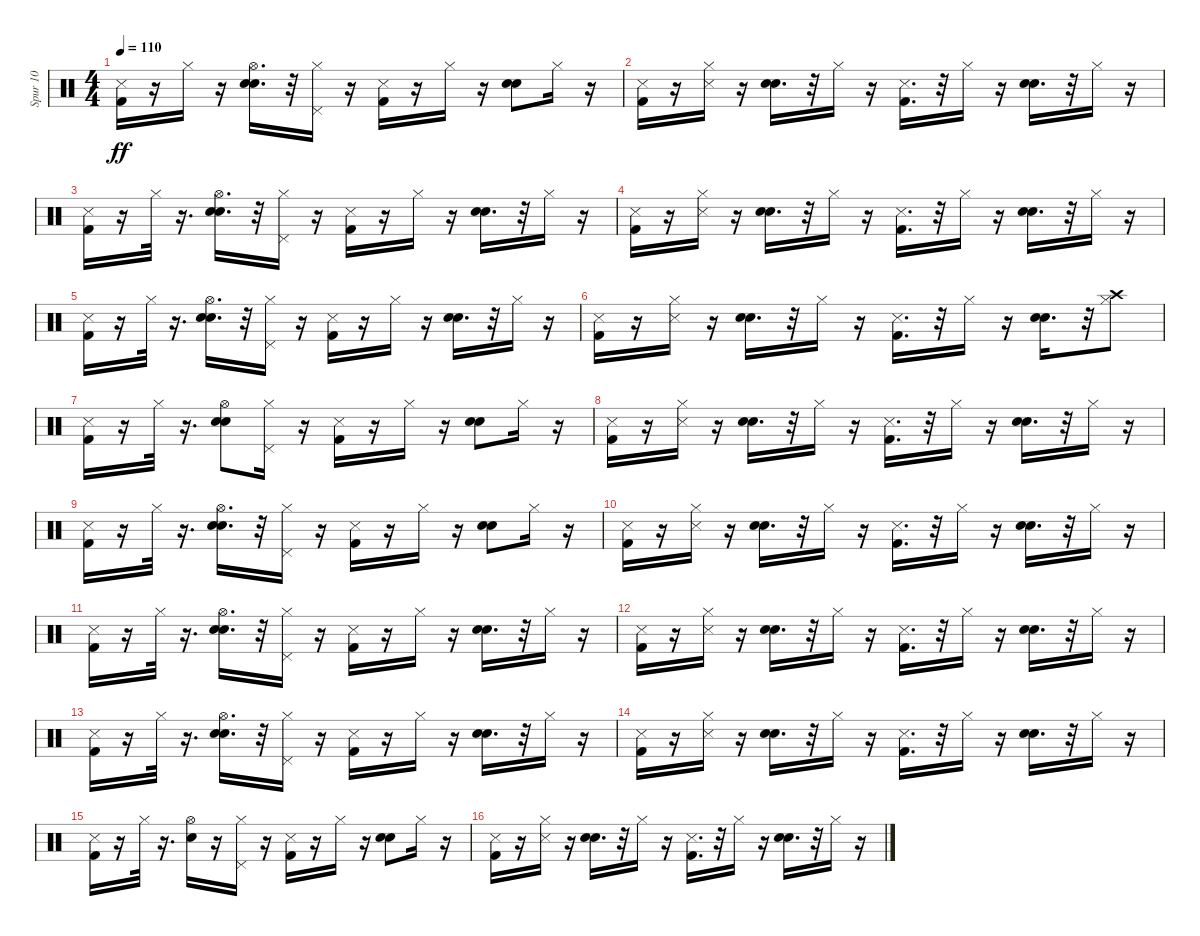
\track ("Spur 10" "Spur 10") {instrument percussion}
\staff {score}
\articulation defaults
\ts (4 4)
\tempo 110
\clef neutral
\ks c
("Kick (hit) 2" "Snare (side stick) 3").16{dy ff} r.16 "Hi-Hat (closed)".16 r.16 ("Hand Clap (hit)" "Electric Snare (hit)" "Hi-Hat (open)").16{d} r.32 ("Hi-Hat (closed)" "Pedal Hi-Hat (hit)").16 r.16 ("Kick (hit) 2" "Snare (side stick) 3").16 r.16 "Hi-Hat (closed)".16 r.16 ("Hand Clap (hit)" "Electric Snare (hit)").8 "Hi-Hat (closed)".16 r.16 |
("Kick (hit) 2" "Snare (side stick) 3").16 r.16 ("Snare (side stick) 3" "Hi-Hat (closed)").16 r.16 ("Hand Clap (hit)" "Electric Snare (hit)").16{d} r.32 "Hi-Hat (closed)".16 r.16 ("Kick (hit) 2" "Snare (side stick) 3").16{d} r.32 "Hi-Hat (closed)".16 r.16 ("Electric Snare (hit)" "Hand Clap (hit)").16{d} r.32 "Hi-Hat (closed)".16 r.16 |
("Kick (hit) 2" "Snare (side stick) 3").16 r.16 "Hi-Hat (closed)".32 r.16{d} ("Hand Clap (hit)" "Electric Snare (hit)" "Hi-Hat (open)").16{d} r.32 ("Hi-Hat (closed)" "Pedal Hi-Hat (hit)").16 r.16 ("Kick (hit) 2" "Snare (side stick) 3").16 r.16 "Hi-Hat (closed)".16 r.16 ("Hand Clap (hit)" "Electric Snare (hit)").16{d} r.32 "Hi-Hat (closed)".16 r.16 |
("Kick (hit) 2" "Snare (side stick) 3").16 r.16 ("Snare (side stick) 3" "Hi-Hat (closed)").16 r.16 ("Hand Clap (hit)" "Electric Snare (hit)").16{d} r.32 "Hi-Hat (closed)".16 r.16 ("Kick (hit) 2" "Snare (side stick) 3").16{d} r.32 "Hi-Hat (closed)".16 r.16 ("Hand Clap (hit)" "Electric Snare (hit)").16{d} r.32 "Hi-Hat (closed)".16 r.16 |
("Kick (hit) 2" "Snare (side stick) 3").16 r.16 "Hi-Hat (closed)".32 r.16{d} ("Hand Clap (hit)" "Electric Snare (hit)" "Hi-Hat (open)").16{d} r.32 ("Hi-Hat (closed)" "Pedal Hi-Hat (hit)").16 r.16 ("Kick (hit) 2" "Snare (side stick) 3").16 r.16 "Hi-Hat (closed)".16 r.16 ("Hand Clap (hit)" "Electric Snare (hit)").16{d} r.32 "Hi-Hat (closed)".16 r.16 |
("Kick (hit) 2" "Snare (side stick) 3").16 r.16 ("Snare (side stick) 3" "Hi-Hat (closed)").16 r.16 ("Hand Clap (hit)" "Electric Snare (hit)").16{d} r.32 "Hi-Hat (closed)".16 r.16 ("Kick (hit) 2" "Snare (side stick) 3").16{d} r.32 "Hi-Hat (closed)".16 r.16 ("Hand Clap (hit)" "Electric Snare (hit)").16{d} r.32 ("Hi-Hat (closed)" "Crash high (hit)").8 |
("Kick (hit) 2" "Snare (side stick) 3").16 r.16 "Hi-Hat (closed)".32 r.16{d} ("Hand Clap (hit)" "Electric Snare (hit)" "Hi-Hat (open)").8 ("Hi-Hat (closed)" "Pedal Hi-Hat (hit)").16 r.16 ("Kick (hit) 2" "Snare (side stick) 3").16 r.16 "Hi-Hat (closed)".16 r.16 ("Electric Snare (hit)" "Hand Clap (hit)").8 "Hi-Hat (closed)".16 r.16 |
("Kick (hit) 2" "Snare (side stick) 3").16 r.16 ("Snare (side stick) 3" "Hi-Hat (closed)").16 r.16 ("Electric Snare (hit)" "Hand Clap (hit)").16{d} r.32 "Hi-Hat (closed)".16 r.16 ("Kick (hit) 2" "Snare (side stick) 3").16{d} r.32 "Hi-Hat (closed)".16 r.16 ("Hand Clap (hit)" "Electric Snare (hit)").16{d} r.32 "Hi-Hat (closed)".16 r.16 |
("Kick (hit) 2" "Snare (side stick) 3").16 r.16 "Hi-Hat (closed)".32 r.16{d} ("Hand Clap (hit)" "Electric Snare (hit)" "Hi-Hat (open)").16{d} r.32 ("Hi-Hat (closed)" "Pedal Hi-Hat (hit)").16 r.16 ("Kick (hit) 2" "Snare (side stick) 3").16 r.16 "Hi-Hat (closed)".16 r.16 ("Hand Clap (hit)" "Electric Snare (hit)").8 "Hi-Hat (closed)".16 r.16 |
("Kick (hit) 2" "Snare (side stick) 3").16 r.16 ("Snare (side stick) 3" "Hi-Hat (closed)").16 r.16 ("Hand Clap (hit)" "Electric Snare (hit)").16{d} r.32 "Hi-Hat (closed)".16 r.16 ("Kick (hit) 2" "Snare (side stick) 3").16{d} r.32 "Hi-Hat (closed)".16 r.16 ("Electric Snare (hit)" "Hand Clap (hit)").16{d} r.32 "Hi-Hat (closed)".16 r.16 |
("Kick (hit) 2" "Snare (side stick) 3").16 r.16 "Hi-Hat (closed)".32 r.16{d} ("Hand Clap (hit)" "Electric Snare (hit)" "Hi-Hat (open)").16{d} r.32 ("Hi-Hat (closed)" "Pedal Hi-Hat (hit)").16 r.16 ("Kick (hit) 2" "Snare (side stick) 3").16 r.16 "Hi-Hat (closed)".16 r.16 ("Hand Clap (hit)" "Electric Snare (hit)").16{d} r.32 "Hi-Hat (closed)".16 r.16 |
("Kick (hit) 2" "Snare (side stick) 3").16 r.16 ("Snare (side stick) 3" "Hi-Hat (closed)").16 r.16 ("Hand Clap (hit)" "Electric Snare (hit)").16{d} r.32 "Hi-Hat (closed)".16 r.16 ("Kick (hit) 2" "Snare (side stick) 3").16{d} r.32 "Hi-Hat (closed)".16 r.16 ("Hand Clap (hit)" "Electric Snare (hit)").16{d} r.32 "Hi-Hat (closed)".16 r.16 |
("Kick (hit) 2" "Snare (side stick) 3").16 r.16 "Hi-Hat (closed)".32 r.16{d} ("Hand Clap (hit)" "Electric Snare (hit)" "Hi-Hat (open)").16{d} r.32 ("Hi-Hat (closed)" "Pedal Hi-Hat (hit)").16 r.16 ("Kick (hit) 2" "Snare (side stick) 3").16 r.16 "Hi-Hat (closed)".16 r.16 ("Hand Clap (hit)" "Electric Snare (hit)").16{d} r.32 "Hi-Hat (closed)".16 r.16 |
("Kick (hit) 2" "Snare (side stick) 3").16 r.16 ("Snare (side stick) 3" "Hi-Hat (closed)").16 r.16 ("Hand Clap (hit)" "Electric Snare (hit)").16{d} r.32 "Hi-Hat (closed)".16 r.16 ("Kick (hit) 2" "Snare (side stick) 3").16{d} r.32 "Hi-Hat (closed)".16 r.16 ("Hand Clap (hit)" "Electric Snare (hit)").16{d} r.32 "Hi-Hat (closed)".16 r.16 |
("Kick (hit) 2" "Snare (side stick) 3").16 r.16 "Hi-Hat (closed)".32 r.16{d} ("Electric Snare (hit)" "Hi-Hat (open)").16 r.16 ("Hi-Hat (closed)" "Pedal Hi-Hat (hit)").16 r.16 ("Kick (hit) 2" "Snare (side stick) 3").16 r.16 "Hi-Hat (closed)".16 r.16 ("Electric Snare (hit)" "Hand Clap (hit)").8 "Hi-Hat (closed)".16 r.16 |
("Kick (hit) 2" "Snare (side stick) 3").16 r.16 ("Snare (side stick) 3" "Hi-Hat (closed)").16 r.16 ("Hand Clap (hit)" "Electric Snare (hit)").16{d} r.32 "Hi-Hat (closed)".16 r.16 ("Kick (hit) 2" "Snare (side stick) 3").16{d} r.32 "Hi-Hat (closed)".16 r.16 ("Hand Clap (hit)" "Electric Snare (hit)").16{d} r.32 "Hi-Hat (closed)".16 r.16
